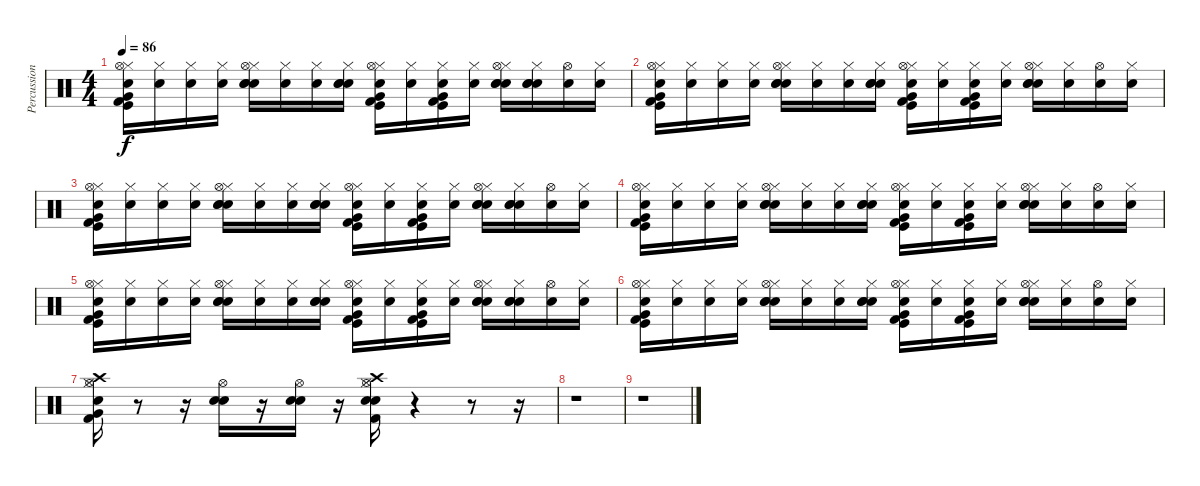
\track ("Percussions (from MIDI)" "Percussion") {instrument percussion}
\staff {score}
\articulation defaults
\ts (4 4)
\tempo 86
\clef neutral
\ks c
("Snare (hit)" "Kick (hit)" "Kick (hit) 2" "Very Low Tom (hit)" "Hi-Hat (closed)" "Hi-Hat (open)").16{dy f} ("Snare (hit)" "Hi-Hat (closed)").16 ("Snare (hit)" "Hi-Hat (closed)").16 ("Snare (hit)" "Hi-Hat (closed)").16 ("Snare (hit)" "Hi-Hat (closed)" "Electric Snare (hit)" "Snare (hit) 2" "Hi-Hat (open)").16 ("Snare (hit)" "Hi-Hat (closed)").16 ("Snare (hit)" "Hi-Hat (closed)").16 ("Snare (hit)" "Hi-Hat (closed)" "Electric Snare (hit)" "Snare (hit) 2").16 ("Snare (hit)" "Hi-Hat (closed)" "Very Low Tom (hit)" "Kick (hit) 2" "Kick (hit)" "Hi-Hat (open)").16 ("Snare (hit)" "Hi-Hat (closed)").16 ("Snare (hit)" "Hi-Hat (closed)" "Very Low Tom (hit)" "Kick (hit) 2" "Kick (hit)").16 ("Snare (hit)" "Hi-Hat (closed)").16 ("Snare (hit)" "Hi-Hat (closed)" "Electric Snare (hit)" "Snare (hit) 2" "Hi-Hat (open)").16 ("Snare (hit)" "Hi-Hat (closed)" "Snare (hit) 2" "Electric Snare (hit)").16 ("Snare (hit)" "Hi-Hat (open)").16 ("Snare (hit)" "Hi-Hat (closed)").16 |
("Snare (hit)" "Kick (hit)" "Kick (hit) 2" "Very Low Tom (hit)" "Hi-Hat (closed)" "Hi-Hat (open)").16 ("Snare (hit)" "Hi-Hat (closed)").16 ("Snare (hit)" "Hi-Hat (closed)").16 ("Snare (hit)" "Hi-Hat (closed)").16 ("Snare (hit)" "Hi-Hat (closed)" "Electric Snare (hit)" "Snare (hit) 2" "Hi-Hat (open)").16 ("Snare (hit)" "Hi-Hat (closed)").16 ("Snare (hit)" "Hi-Hat (closed)").16 ("Snare (hit)" "Hi-Hat (closed)" "Electric Snare (hit)" "Snare (hit) 2").16 ("Snare (hit)" "Hi-Hat (closed)" "Very Low Tom (hit)" "Kick (hit) 2" "Kick (hit)" "Hi-Hat (open)").16 ("Snare (hit)" "Hi-Hat (closed)").16 ("Snare (hit)" "Hi-Hat (closed)" "Very Low Tom (hit)" "Kick (hit) 2" "Kick (hit)").16 ("Snare (hit)" "Hi-Hat (closed)").16 ("Snare (hit)" "Hi-Hat (closed)" "Electric Snare (hit)" "Snare (hit) 2" "Hi-Hat (open)").16 ("Snare (hit)" "Hi-Hat (closed)").16 ("Snare (hit)" "Hi-Hat (open)").16 ("Snare (hit)" "Hi-Hat (closed)").16 |
("Snare (hit)" "Kick (hit)" "Kick (hit) 2" "Very Low Tom (hit)" "Hi-Hat (closed)" "Hi-Hat (open)").16 ("Snare (hit)" "Hi-Hat (closed)").16 ("Snare (hit)" "Hi-Hat (closed)").16 ("Snare (hit)" "Hi-Hat (closed)").16 ("Snare (hit)" "Hi-Hat (closed)" "Electric Snare (hit)" "Snare (hit) 2" "Hi-Hat (open)").16 ("Snare (hit)" "Hi-Hat (closed)").16 ("Snare (hit)" "Hi-Hat (closed)").16 ("Snare (hit)" "Hi-Hat (closed)" "Electric Snare (hit)" "Snare (hit) 2").16 ("Snare (hit)" "Hi-Hat (closed)" "Very Low Tom (hit)" "Kick (hit) 2" "Kick (hit)" "Hi-Hat (open)").16 ("Snare (hit)" "Hi-Hat (closed)").16 ("Snare (hit)" "Hi-Hat (closed)" "Very Low Tom (hit)" "Kick (hit) 2" "Kick (hit)").16 ("Snare (hit)" "Hi-Hat (closed)").16 ("Snare (hit)" "Hi-Hat (closed)" "Electric Snare (hit)" "Snare (hit) 2" "Hi-Hat (open)").16 ("Snare (hit)" "Hi-Hat (closed)" "Snare (hit) 2" "Electric Snare (hit)").16 ("Snare (hit)" "Hi-Hat (open)").16 ("Snare (hit)" "Hi-Hat (closed)").16 |
("Snare (hit)" "Kick (hit)" "Kick (hit) 2" "Very Low Tom (hit)" "Hi-Hat (closed)" "Hi-Hat (open)").16 ("Snare (hit)" "Hi-Hat (closed)").16 ("Snare (hit)" "Hi-Hat (closed)").16 ("Snare (hit)" "Hi-Hat (closed)").16 ("Snare (hit)" "Hi-Hat (closed)" "Electric Snare (hit)" "Snare (hit) 2" "Hi-Hat (open)").16 ("Snare (hit)" "Hi-Hat (closed)").16 ("Snare (hit)" "Hi-Hat (closed)").16 ("Snare (hit)" "Hi-Hat (closed)" "Electric Snare (hit)" "Snare (hit) 2").16 ("Snare (hit)" "Hi-Hat (closed)" "Very Low Tom (hit)" "Kick (hit) 2" "Kick (hit)" "Hi-Hat (open)").16 ("Snare (hit)" "Hi-Hat (closed)").16 ("Snare (hit)" "Hi-Hat (closed)" "Very Low Tom (hit)" "Kick (hit) 2" "Kick (hit)").16 ("Snare (hit)" "Hi-Hat (closed)").16 ("Snare (hit)" "Hi-Hat (closed)" "Electric Snare (hit)" "Snare (hit) 2" "Hi-Hat (open)").16 ("Snare (hit)" "Hi-Hat (closed)").16 ("Snare (hit)" "Hi-Hat (open)").16 ("Snare (hit)" "Hi-Hat (closed)").16 |
("Snare (hit)" "Kick (hit)" "Kick (hit) 2" "Very Low Tom (hit)" "Hi-Hat (closed)" "Hi-Hat (open)").16 ("Snare (hit)" "Hi-Hat (closed)").16 ("Snare (hit)" "Hi-Hat (closed)").16 ("Snare (hit)" "Hi-Hat (closed)").16 ("Snare (hit)" "Hi-Hat (closed)" "Electric Snare (hit)" "Snare (hit) 2" "Hi-Hat (open)").16 ("Snare (hit)" "Hi-Hat (closed)").16 ("Snare (hit)" "Hi-Hat (closed)").16 ("Snare (hit)" "Hi-Hat (closed)" "Electric Snare (hit)" "Snare (hit) 2").16 ("Snare (hit)" "Hi-Hat (closed)" "Very Low Tom (hit)" "Kick (hit) 2" "Kick (hit)" "Hi-Hat (open)").16 ("Snare (hit)" "Hi-Hat (closed)").16 ("Snare (hit)" "Hi-Hat (closed)" "Very Low Tom (hit)" "Kick (hit) 2" "Kick (hit)").16 ("Snare (hit)" "Hi-Hat (closed)").16 ("Snare (hit)" "Hi-Hat (closed)" "Electric Snare (hit)" "Snare (hit) 2" "Hi-Hat (open)").16 ("Snare (hit)" "Hi-Hat (closed)" "Snare (hit) 2" "Electric Snare (hit)").16 ("Snare (hit)" "Hi-Hat (open)").16 ("Snare (hit)" "Hi-Hat (closed)").16 |
("Snare (hit)" "Kick (hit)" "Kick (hit) 2" "Very Low Tom (hit)" "Hi-Hat (closed)" "Hi-Hat (open)").16 ("Snare (hit)" "Hi-Hat (closed)").16 ("Snare (hit)" "Hi-Hat (closed)").16 ("Snare (hit)" "Hi-Hat (closed)").16 ("Snare (hit)" "Hi-Hat (closed)" "Electric Snare (hit)" "Snare (hit) 2" "Hi-Hat (open)").16 ("Snare (hit)" "Hi-Hat (closed)").16 ("Snare (hit)" "Hi-Hat (closed)").16 ("Snare (hit)" "Hi-Hat (closed)" "Electric Snare (hit)" "Snare (hit) 2").16 ("Snare (hit)" "Hi-Hat (closed)" "Very Low Tom (hit)" "Kick (hit) 2" "Kick (hit)" "Hi-Hat (open)").16 ("Snare (hit)" "Hi-Hat (closed)").16 ("Snare (hit)" "Hi-Hat (closed)" "Very Low Tom (hit)" "Kick (hit) 2" "Kick (hit)").16 ("Snare (hit)" "Hi-Hat (closed)").16 ("Snare (hit)" "Hi-Hat (closed)" "Electric Snare (hit)" "Snare (hit) 2" "Hi-Hat (open)").16 ("Snare (hit)" "Hi-Hat (closed)").16 ("Snare (hit)" "Hi-Hat (open)").16 ("Snare (hit)" "Hi-Hat (closed)").16 |
("Snare (hit)" "Hi-Hat (open)" "Hi-Hat (closed)" "Very Low Tom (hit)" "Kick (hit) 2" "Crash high (hit)").16 r.8 r.16 ("Electric Snare (hit)" "Snare (hit) 2" "Hi-Hat (open)").16 r.16 ("Electric Snare (hit)" "Snare (hit) 2" "Hi-Hat (open)").16 r.16 ("Crash high (hit)" "Hi-Hat (open)" "Hi-Hat (closed)" "Electric Snare (hit)" "Snare (hit) 2" "Kick (hit) 2").16 r.4 r.8 r.16 |
r.1 |
r.1
